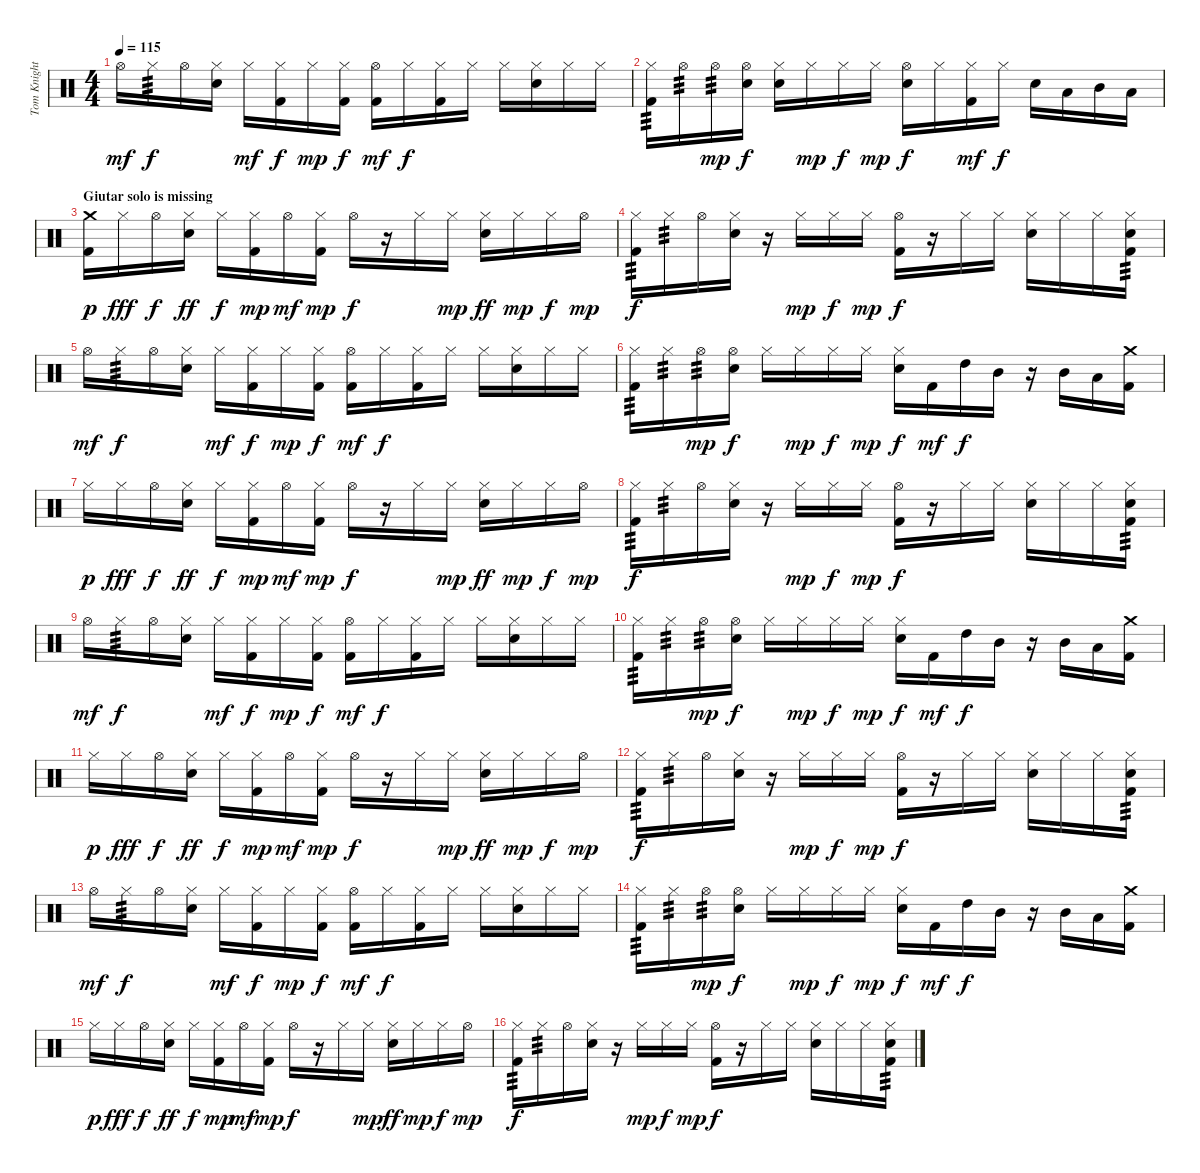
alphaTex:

\track ("Tom Knight" "Tom Knight") {instrument percussion}
\staff {score}
\articulation defaults
\ts (4 4)
\tempo 115
\clef neutral
\ks c "Hi-Hat (open)".16{dy mf} "Hi-Hat (closed)".16{tp 3 dy f} "Hi-Hat (open)".16
("Hi-Hat (closed)" "Electric Snare (hit)").16 "Hi-Hat (closed)".16{dy mf} ("Hi-Hat (closed)" "Kick (hit) 2").16{dy f} "Hi-Hat (closed)".16{dy mp} ("Hi-Hat (closed)" "Kick (hit) 2").16{dy f} ("Hi-Hat (open)" "Kick (hit) 2").16{dy mf} "Hi-Hat (closed)".16{dy f} ("Hi-Hat (closed)" "Kick (hit) 2").16 "Hi-Hat (closed)".16 "Hi-Hat (closed)".16 ("Hi-Hat (closed)" "Electric Snare (hit)").16 "Hi-Hat (closed)".16 "Hi-Hat (closed)".16 |
("Hi-Hat (closed)" "Kick (hit) 2").16{tp 3} "Hi-Hat (open)".16{tp 3} "Hi-Hat (open)".16{tp 3 dy mp} ("Hi-Hat (open)" "Electric Snare (hit)").16{dy f} ("Hi-Hat (closed)" "Electric Snare (hit)").16 "Hi-Hat (closed)".16{dy mp} "Hi-Hat (closed)".16{dy f} "Hi-Hat (closed)".16{dy mp} ("Hi-Hat (open)" "Electric Snare (hit)").16{dy f} "Hi-Hat (closed)".16 ("Hi-Hat (closed)" "Kick (hit) 2").16{dy mf} "Hi-Hat (closed)".16{dy f} "Electric Snare (hit)".16 "Low Tom (hit)".16 "Mid Tom (hit)".16 "Low Tom (hit)".16 |
\section ("" "Giutar solo is missing")
("Crash medium (hit)" "Kick (hit) 2").16{dy p} "Hi-Hat (closed)".16{dy fff} "Hi-Hat (open)".16{dy f} ("Hi-Hat (closed)" "Electric Snare (hit)").16{dy ff} "Hi-Hat (closed)".16{dy f} ("Hi-Hat (closed)" "Kick (hit) 2").16{dy mp} "Hi-Hat (open)".16{dy mf} ("Hi-Hat (closed)" "Kick (hit) 2").16{dy mp} "Hi-Hat (open)".16{dy f} r.16 "Hi-Hat (closed)".16 "Hi-Hat (closed)".16{dy mp} ("Hi-Hat (closed)" "Electric Snare (hit)").16{dy ff} "Hi-Hat (closed)".16{dy mp} "Hi-Hat (closed)".16{dy f} "Hi-Hat (open)".16{dy mp} |
("Hi-Hat (closed)" "Kick (hit) 2").16{tp 3 dy f} "Hi-Hat (closed)".16{tp 3} "Hi-Hat (open)".16 ("Hi-Hat (closed)" "Electric Snare (hit)").16 r.16 "Hi-Hat (closed)".16{dy mp} "Hi-Hat (closed)".16{dy f} "Hi-Hat (closed)".16{dy mp} ("Hi-Hat (open)" "Kick (hit) 2").16{dy f} r.16 "Hi-Hat (closed)".16 "Hi-Hat (closed)".16 ("Hi-Hat (closed)" "Electric Snare (hit)").16 "Hi-Hat (closed)".16 "Hi-Hat (closed)".16 ("Hi-Hat (closed)" "Electric Snare (hit)" "Kick (hit) 2").16{tp 3} |
"Hi-Hat (open)".16{dy mf} "Hi-Hat (closed)".16{tp 3 dy f} "Hi-Hat (open)".16 ("Hi-Hat (closed)" "Electric Snare (hit)").16 "Hi-Hat (closed)".16{dy mf} ("Hi-Hat (closed)" "Kick (hit) 2").16{dy f} "Hi-Hat (closed)".16{dy mp} ("Hi-Hat (closed)" "Kick (hit) 2").16{dy f} ("Hi-Hat (open)" "Kick (hit) 2").16{dy mf} "Hi-Hat (closed)".16{dy f} ("Hi-Hat (closed)" "Kick (hit) 2").16 "Hi-Hat (closed)".16 "Hi-Hat (closed)".16 ("Hi-Hat (closed)" "Electric Snare (hit)").16 "Hi-Hat (closed)".16 "Hi-Hat (closed)".16 |
("Hi-Hat (closed)" "Kick (hit) 2").16{tp 3} "Hi-Hat (closed)".16{tp 3} "Hi-Hat (open)".16{tp 3 dy mp} ("Hi-Hat (open)" "Electric Snare (hit)").16{dy f} "Hi-Hat (closed)".16 "Hi-Hat (closed)".16{dy mp} "Hi-Hat (closed)".16{dy f} "Hi-Hat (closed)".16{dy mp} ("Hi-Hat (closed)" "Electric Snare (hit)").16{dy f} "Kick (hit) 2".16{dy mf} "High Tom (hit)".16{dy f} "Mid Tom (hit)".16 r.16 "Mid Tom (hit)".16 "Low Tom (hit)".16 ("Crash medium (hit)" "Kick (hit) 2").16 |
"Hi-Hat (closed)".16{dy p} "Hi-Hat (closed)".16{dy fff} "Hi-Hat (open)".16{dy f} ("Hi-Hat (closed)" "Electric Snare (hit)").16{dy ff} "Hi-Hat (closed)".16{dy f} ("Hi-Hat (closed)" "Kick (hit) 2").16{dy mp} "Hi-Hat (open)".16{dy mf} ("Hi-Hat (closed)" "Kick (hit) 2").16{dy mp} "Hi-Hat (open)".16{dy f} r.16 "Hi-Hat (closed)".16 "Hi-Hat (closed)".16{dy mp} ("Hi-Hat (closed)" "Electric Snare (hit)").16{dy ff} "Hi-Hat (closed)".16{dy mp} "Hi-Hat (closed)".16{dy f} "Hi-Hat (open)".16{dy mp} |
("Hi-Hat (closed)" "Kick (hit) 2").16{tp 3 dy f} "Hi-Hat (closed)".16{tp 3} "Hi-Hat (open)".16 ("Hi-Hat (closed)" "Electric Snare (hit)").16 r.16 "Hi-Hat (closed)".16{dy mp} "Hi-Hat (closed)".16{dy f} "Hi-Hat (closed)".16{dy mp} ("Hi-Hat (open)" "Kick (hit) 2").16{dy f} r.16 "Hi-Hat (closed)".16 "Hi-Hat (closed)".16 ("Hi-Hat (closed)" "Electric Snare (hit)").16 "Hi-Hat (closed)".16 "Hi-Hat (closed)".16 ("Hi-Hat (closed)" "Electric Snare (hit)" "Kick (hit) 2").16{tp 3} |
"Hi-Hat (open)".16{dy mf} "Hi-Hat (closed)".16{tp 3 dy f} "Hi-Hat (open)".16 ("Hi-Hat (closed)" "Electric Snare (hit)").16 "Hi-Hat (closed)".16{dy mf} ("Hi-Hat (closed)" "Kick (hit) 2").16{dy f} "Hi-Hat (closed)".16{dy mp} ("Hi-Hat (closed)" "Kick (hit) 2").16{dy f} ("Hi-Hat (open)" "Kick (hit) 2").16{dy mf} "Hi-Hat (closed)".16{dy f} ("Hi-Hat (closed)" "Kick (hit) 2").16 "Hi-Hat (closed)".16 "Hi-Hat (closed)".16 ("Hi-Hat (closed)" "Electric Snare (hit)").16 "Hi-Hat (closed)".16 "Hi-Hat (closed)".16 |
("Hi-Hat (closed)" "Kick (hit) 2").16{tp 3} "Hi-Hat (closed)".16{tp 3} "Hi-Hat (open)".16{tp 3 dy mp} ("Hi-Hat (open)" "Electric Snare (hit)").16{dy f} "Hi-Hat (closed)".16 "Hi-Hat (closed)".16{dy mp} "Hi-Hat (closed)".16{dy f} "Hi-Hat (closed)".16{dy mp} ("Hi-Hat (closed)" "Electric Snare (hit)").16{dy f} "Kick (hit) 2".16{dy mf} "High Tom (hit)".16{dy f} "Mid Tom (hit)".16 r.16 "Mid Tom (hit)".16 "Low Tom (hit)".16 ("Crash medium (hit)" "Kick (hit) 2").16 |
"Hi-Hat (closed)".16{dy p} "Hi-Hat (closed)".16{dy fff} "Hi-Hat (open)".16{dy f} ("Hi-Hat (closed)" "Electric Snare (hit)").16{dy ff} "Hi-Hat (closed)".16{dy f} ("Hi-Hat (closed)" "Kick (hit) 2").16{dy mp} "Hi-Hat (open)".16{dy mf} ("Hi-Hat (closed)" "Kick (hit) 2").16{dy mp} "Hi-Hat (open)".16{dy f} r.16 "Hi-Hat (closed)".16 "Hi-Hat (closed)".16{dy mp} ("Hi-Hat (closed)" "Electric Snare (hit)").16{dy ff} "Hi-Hat (closed)".16{dy mp} "Hi-Hat (closed)".16{dy f} "Hi-Hat (open)".16{dy mp} |
("Hi-Hat (closed)" "Kick (hit) 2").16{tp 3 dy f} "Hi-Hat (closed)".16{tp 3} "Hi-Hat (open)".16 ("Hi-Hat (closed)" "Electric Snare (hit)").16 r.16 "Hi-Hat (closed)".16{dy mp} "Hi-Hat (closed)".16{dy f} "Hi-Hat (closed)".16{dy mp} ("Hi-Hat (open)" "Kick (hit) 2").16{dy f} r.16 "Hi-Hat (closed)".16 "Hi-Hat (closed)".16 ("Hi-Hat (closed)" "Electric Snare (hit)").16 "Hi-Hat (closed)".16 "Hi-Hat (closed)".16 ("Hi-Hat (closed)" "Electric Snare (hit)" "Kick (hit) 2").16{tp 3} |
"Hi-Hat (open)".16{dy mf} "Hi-Hat (closed)".16{tp 3 dy f} "Hi-Hat (open)".16 ("Hi-Hat (closed)" "Electric Snare (hit)").16 "Hi-Hat (closed)".16{dy mf} ("Hi-Hat (closed)" "Kick (hit) 2").16{dy f} "Hi-Hat (closed)".16{dy mp} ("Hi-Hat (closed)" "Kick (hit) 2").16{dy f} ("Hi-Hat (open)" "Kick (hit) 2").16{dy mf} "Hi-Hat (closed)".16{dy f} ("Hi-Hat (closed)" "Kick (hit) 2").16 "Hi-Hat (closed)".16 "Hi-Hat (closed)".16 ("Hi-Hat (closed)" "Electric Snare (hit)").16 "Hi-Hat (closed)".16 "Hi-Hat (closed)".16 |
("Hi-Hat (closed)" "Kick (hit) 2").16{tp 3} "Hi-Hat (closed)".16{tp 3} "Hi-Hat (open)".16{tp 3 dy mp} ("Hi-Hat (open)" "Electric Snare (hit)").16{dy f} "Hi-Hat (closed)".16 "Hi-Hat (closed)".16{dy mp} "Hi-Hat (closed)".16{dy f} "Hi-Hat (closed)".16{dy mp} ("Hi-Hat (closed)" "Electric Snare (hit)").16{dy f} "Kick (hit) 2".16{dy mf} "High Tom (hit)".16{dy f} "Mid Tom (hit)".16 r.16 "Mid Tom (hit)".16 "Low Tom (hit)".16 ("Crash medium (hit)" "Kick (hit) 2").16 |
"Hi-Hat (closed)".16{dy p} "Hi-Hat (closed)".16{dy fff} "Hi-Hat (open)".16{dy f} ("Hi-Hat (closed)" "Electric Snare (hit)").16{dy ff} "Hi-Hat (closed)".16{dy f} ("Hi-Hat (closed)" "Kick (hit) 2").16{dy mp} "Hi-Hat (open)".16{dy mf} ("Hi-Hat (closed)" "Kick (hit) 2").16{dy mp} "Hi-Hat (open)".16{dy f} r.16 "Hi-Hat (closed)".16 "Hi-Hat (closed)".16{dy mp} ("Hi-Hat (closed)" "Electric Snare (hit)").16{dy ff} "Hi-Hat (closed)".16{dy mp} "Hi-Hat (closed)".16{dy f} "Hi-Hat (open)".16{dy mp} |
("Hi-Hat (closed)" "Kick (hit) 2").16{tp 3 dy f} "Hi-Hat (closed)".16{tp 3} "Hi-Hat (open)".16 ("Hi-Hat (closed)" "Electric Snare (hit)").16 r.16 "Hi-Hat (closed)".16{dy mp} "Hi-Hat (closed)".16{dy f} "Hi-Hat (closed)".16{dy mp} ("Hi-Hat (open)" "Kick (hit) 2").16{dy f} r.16 "Hi-Hat (closed)".16 "Hi-Hat (closed)".16 ("Hi-Hat (closed)" "Electric Snare (hit)").16 "Hi-Hat (closed)".16 "Hi-Hat (closed)".16 ("Hi-Hat (closed)" "Electric Snare (hit)" "Kick (hit) 2").16{tp 3}
